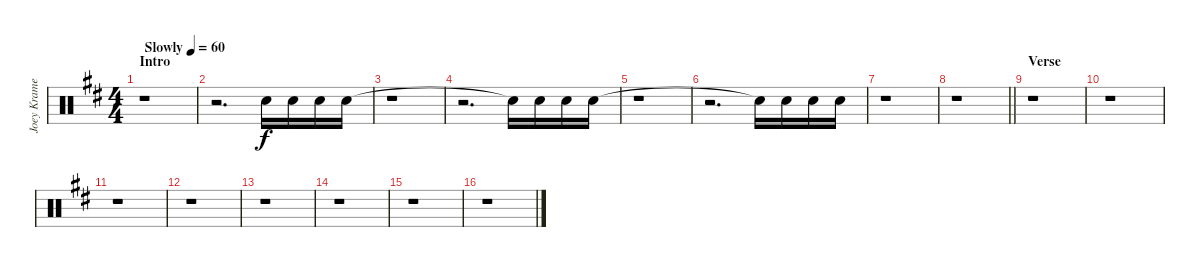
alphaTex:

\track ("Joey Kramer" "Joey Krame") {instrument percussion}
\staff {score}
\articulation defaults
\ts (4 4)
\section ("" "Intro")
\tempo (60 "Slowly")
\clef neutral
\ks d
r.1{dy f} |
r.2{d} "Snare (hit)".16 "Electric Snare (hit)".16 "Electric Snare (hit)".16 "Electric Snare (hit)".16 |
r.1 |
r.2{d} "Snare (hit)"{t}.16 "Electric Snare (hit)".16 "Electric Snare (hit)".16 "Electric Snare (hit)".16 |
r.1 |
r.2{d} "Snare (hit)"{t}.16 "Electric Snare (hit)".16 "Electric Snare (hit)".16 "Electric Snare (hit)".16 |
r.1 |
\barLineRight lightlight
r.1 |
\section ("" "Verse")
r.1 |
r.1 |
r.1 |
r.1 |
r.1 |
r.1 |
r.1 |
r.1
